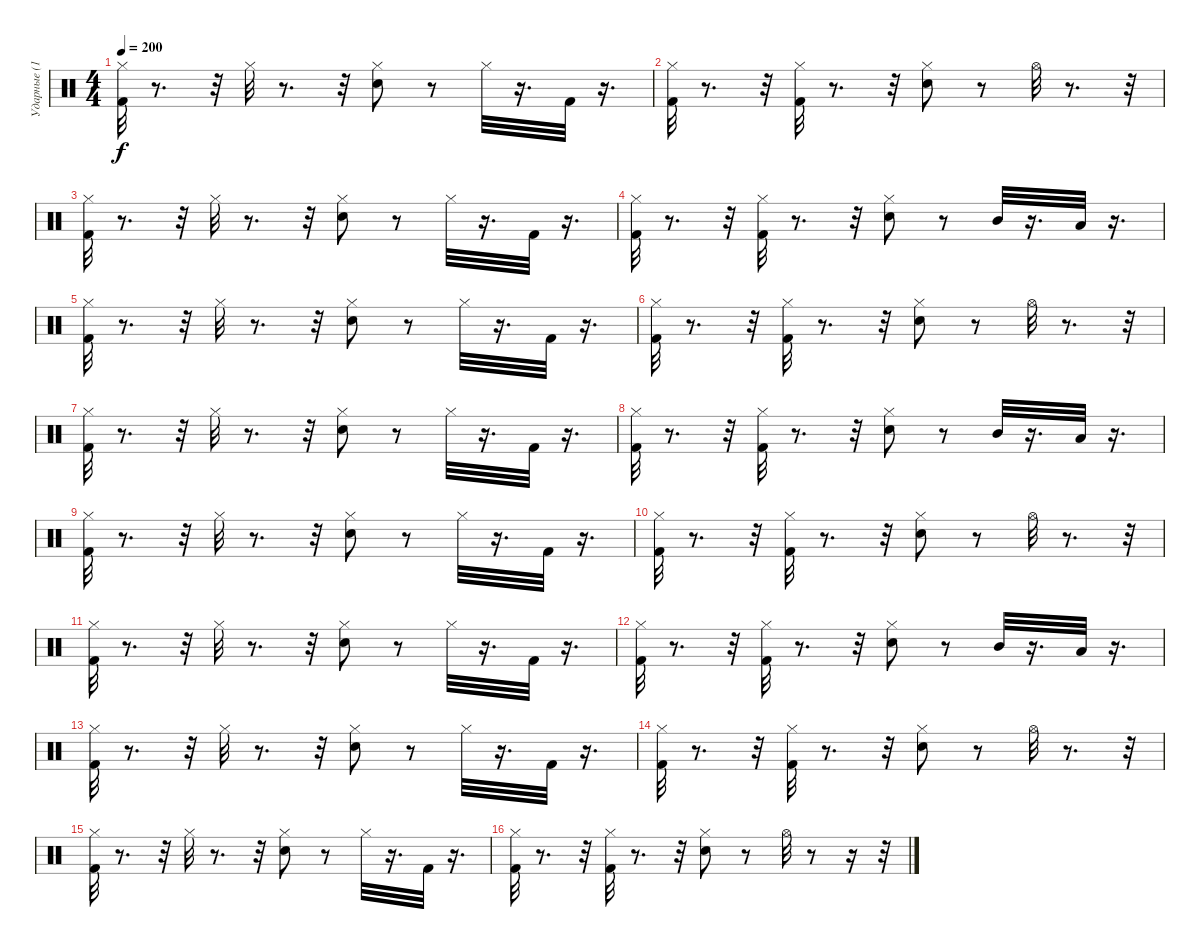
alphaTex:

\track ("Ударные (1)" "Ударные (1") {instrument percussion}
\staff {score}
\articulation defaults
\ts (4 4)
\tempo 200
\clef neutral
\ks c
("Hi-Hat (closed)" "Kick (hit) 2").32{dy f} r.8{d} r.32 "Hi-Hat (closed)".32 r.8{d} r.32 ("Hi-Hat (closed)" "Hand Clap (hit)").8 r.8 "Hi-Hat (closed)".32 r.16{d} "Kick (hit) 2".32 r.16{d} |
("Hi-Hat (closed)" "Kick (hit) 2").32 r.8{d} r.32 ("Hi-Hat (closed)" "Kick (hit) 2").32 r.8{d} r.32 ("Hi-Hat (closed)" "Hand Clap (hit)").8 r.8 "Hi-Hat (open)".32 r.8{d} r.32 |
("Hi-Hat (closed)" "Kick (hit) 2").32 r.8{d} r.32 "Hi-Hat (closed)".32 r.8{d} r.32 ("Hi-Hat (closed)" "Hand Clap (hit)").8 r.8 "Hi-Hat (closed)".32 r.16{d} "Kick (hit) 2".32 r.16{d} |
("Hi-Hat (closed)" "Kick (hit) 2").32 r.8{d} r.32 ("Hi-Hat (closed)" "Kick (hit) 2").32 r.8{d} r.32 ("Hi-Hat (closed)" "Hand Clap (hit)").8 r.8 "Mid Tom (hit)".32 r.16{d} "Low Tom (hit)".32 r.16{d} |
("Hi-Hat (closed)" "Kick (hit) 2").32 r.8{d} r.32 "Hi-Hat (closed)".32 r.8{d} r.32 ("Hi-Hat (closed)" "Hand Clap (hit)").8 r.8 "Hi-Hat (closed)".32 r.16{d} "Kick (hit) 2".32 r.16{d} |
("Hi-Hat (closed)" "Kick (hit) 2").32 r.8{d} r.32 ("Hi-Hat (closed)" "Kick (hit) 2").32 r.8{d} r.32 ("Hi-Hat (closed)" "Hand Clap (hit)").8 r.8 "Hi-Hat (open)".32 r.8{d} r.32 |
("Hi-Hat (closed)" "Kick (hit) 2").32 r.8{d} r.32 "Hi-Hat (closed)".32 r.8{d} r.32 ("Hi-Hat (closed)" "Hand Clap (hit)").8 r.8 "Hi-Hat (closed)".32 r.16{d} "Kick (hit) 2".32 r.16{d} |
("Hi-Hat (closed)" "Kick (hit) 2").32 r.8{d} r.32 ("Hi-Hat (closed)" "Kick (hit) 2").32 r.8{d} r.32 ("Hi-Hat (closed)" "Hand Clap (hit)").8 r.8 "Mid Tom (hit)".32 r.16{d} "Low Tom (hit)".32 r.16{d} |
("Hi-Hat (closed)" "Kick (hit) 2").32 r.8{d} r.32 "Hi-Hat (closed)".32 r.8{d} r.32 ("Hi-Hat (closed)" "Hand Clap (hit)").8 r.8 "Hi-Hat (closed)".32 r.16{d} "Kick (hit) 2".32 r.16{d} |
("Hi-Hat (closed)" "Kick (hit) 2").32 r.8{d} r.32 ("Hi-Hat (closed)" "Kick (hit) 2").32 r.8{d} r.32 ("Hi-Hat (closed)" "Hand Clap (hit)").8 r.8 "Hi-Hat (open)".32 r.8{d} r.32 |
("Hi-Hat (closed)" "Kick (hit) 2").32 r.8{d} r.32 "Hi-Hat (closed)".32 r.8{d} r.32 ("Hi-Hat (closed)" "Hand Clap (hit)").8 r.8 "Hi-Hat (closed)".32 r.16{d} "Kick (hit) 2".32 r.16{d} |
("Hi-Hat (closed)" "Kick (hit) 2").32 r.8{d} r.32 ("Hi-Hat (closed)" "Kick (hit) 2").32 r.8{d} r.32 ("Hi-Hat (closed)" "Hand Clap (hit)").8 r.8 "Mid Tom (hit)".32 r.16{d} "Low Tom (hit)".32 r.16{d} |
("Hi-Hat (closed)" "Kick (hit) 2").32 r.8{d} r.32 "Hi-Hat (closed)".32 r.8{d} r.32 ("Hi-Hat (closed)" "Hand Clap (hit)").8 r.8 "Hi-Hat (closed)".32 r.16{d} "Kick (hit) 2".32 r.16{d} |
("Hi-Hat (closed)" "Kick (hit) 2").32 r.8{d} r.32 ("Hi-Hat (closed)" "Kick (hit) 2").32 r.8{d} r.32 ("Hi-Hat (closed)" "Hand Clap (hit)").8 r.8 "Hi-Hat (open)".32 r.8{d} r.32 |
("Hi-Hat (closed)" "Kick (hit) 2").32 r.8{d} r.32 "Hi-Hat (closed)".32 r.8{d} r.32 ("Hi-Hat (closed)" "Hand Clap (hit)").8 r.8 "Hi-Hat (closed)".32 r.16{d} "Kick (hit) 2".32 r.16{d} |
("Hi-Hat (closed)" "Kick (hit) 2").32 r.8{d} r.32 ("Hi-Hat (closed)" "Kick (hit) 2").32 r.8{d} r.32 ("Hi-Hat (closed)" "Hand Clap (hit)").8 r.8 "Hi-Hat (open)".32 r.8 r.16 r.32
